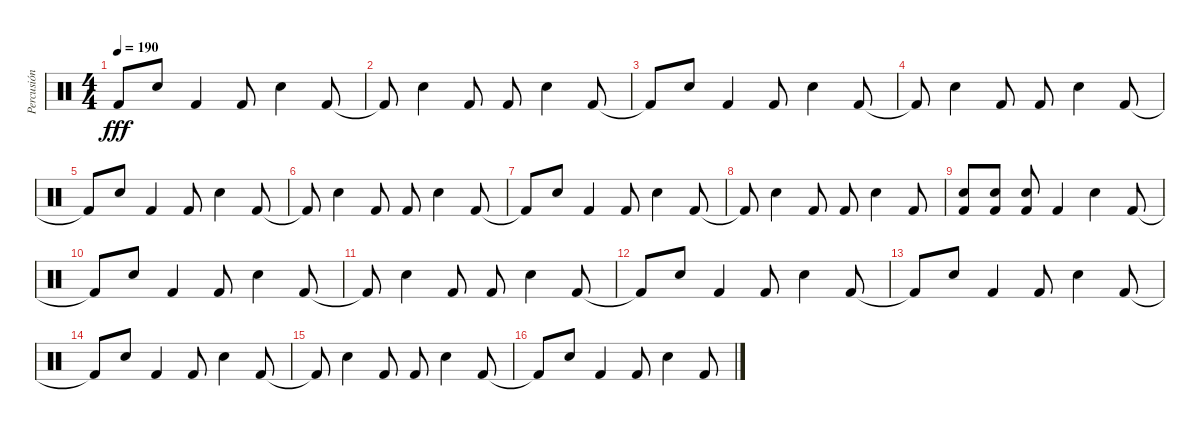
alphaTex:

\track ("Percusión" "Percusión") {instrument percussion}
\staff {score}
\articulation defaults
\ts (4 4)
\tempo 190
\clef neutral
\ks c "Kick (hit) 2"{t}.8{dy fff} "Snare (hit) 2".8 "Kick (hit) 2".4 "Kick (hit) 2".8 "Snare (hit) 2".4 "Kick (hit) 2".8
|
"Kick (hit) 2"{t}.8 "Snare (hit) 2".4 "Kick (hit) 2".8 "Kick (hit) 2".8 "Snare (hit) 2".4 "Kick (hit) 2".8 |
"Kick (hit) 2"{t}.8 "Snare (hit) 2".8 "Kick (hit) 2".4 "Kick (hit) 2".8 "Snare (hit) 2".4 "Kick (hit) 2".8 |
"Kick (hit) 2"{t}.8 "Snare (hit) 2".4 "Kick (hit) 2".8 "Kick (hit) 2".8 "Snare (hit) 2".4 "Kick (hit) 2".8 |
"Kick (hit) 2"{t}.8 "Snare (hit) 2".8 "Kick (hit) 2".4 "Kick (hit) 2".8 "Snare (hit) 2".4 "Kick (hit) 2".8 |
"Kick (hit) 2"{t}.8 "Snare (hit) 2".4 "Kick (hit) 2".8 "Kick (hit) 2".8 "Snare (hit) 2".4 "Kick (hit) 2".8 |
"Kick (hit) 2"{t}.8 "Snare (hit) 2".8 "Kick (hit) 2".4 "Kick (hit) 2".8 "Snare (hit) 2".4 "Kick (hit) 2".8 |
"Kick (hit) 2"{t}.8 "Snare (hit) 2".4 "Kick (hit) 2".8 "Kick (hit) 2".8 "Snare (hit) 2".4 "Kick (hit) 2".8 |
("Snare (hit) 2" "Kick (hit) 2").8 ("Snare (hit) 2" "Kick (hit) 2").8 ("Snare (hit) 2" "Kick (hit) 2").8 "Kick (hit) 2".4 "Snare (hit) 2".4 "Kick (hit) 2".8 |
"Kick (hit) 2"{t}.8 "Snare (hit) 2".8 "Kick (hit) 2".4 "Kick (hit) 2".8 "Snare (hit) 2".4 "Kick (hit) 2".8 |
"Kick (hit) 2"{t}.8 "Snare (hit) 2".4 "Kick (hit) 2".8 "Kick (hit) 2".8 "Snare (hit) 2".4 "Kick (hit) 2".8 |
"Kick (hit) 2"{t}.8 "Snare (hit) 2".8 "Kick (hit) 2".4 "Kick (hit) 2".8 "Snare (hit) 2".4 "Kick (hit) 2".8 |
"Kick (hit) 2"{t}.8 "Snare (hit) 2".8 "Kick (hit) 2".4 "Kick (hit) 2".8 "Snare (hit) 2".4 "Kick (hit) 2".8 |
"Kick (hit) 2"{t}.8 "Snare (hit) 2".8 "Kick (hit) 2".4 "Kick (hit) 2".8 "Snare (hit) 2".4 "Kick (hit) 2".8 |
"Kick (hit) 2"{t}.8 "Snare (hit) 2".4 "Kick (hit) 2".8 "Kick (hit) 2".8 "Snare (hit) 2".4 "Kick (hit) 2".8 |
"Kick (hit) 2"{t}.8 "Snare (hit) 2".8 "Kick (hit) 2".4 "Kick (hit) 2".8 "Snare (hit) 2".4 "Kick (hit) 2".8
